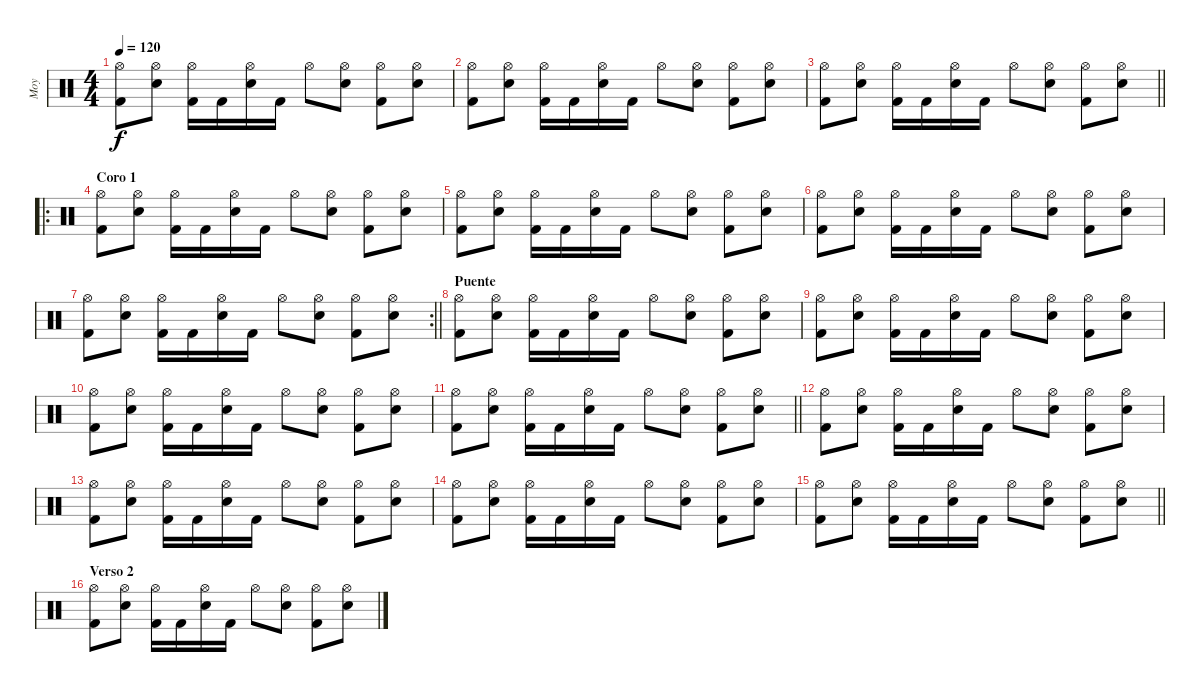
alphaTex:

\track ("Moy" "Moy") {instrument percussion}
\staff {score}
\articulation defaults
\ts (4 4)
\tempo 120
\clef neutral
\ks c
("Hi-Hat (open)" "Kick (hit) 2").8{dy f} ("Hi-Hat (open)" "Electric Snare (hit)").8 ("Hi-Hat (open)" "Kick (hit) 2").16 "Kick (hit) 2".16 ("Hi-Hat (open)" "Electric Snare (hit)").16 "Kick (hit) 2".16 "Hi-Hat (open)".8 ("Hi-Hat (open)" "Electric Snare (hit)").8 ("Hi-Hat (open)" "Kick (hit) 2").8 ("Hi-Hat (open)" "Electric Snare (hit)").8 |
("Hi-Hat (open)" "Kick (hit) 2").8 ("Hi-Hat (open)" "Electric Snare (hit)").8 ("Hi-Hat (open)" "Kick (hit) 2").16 "Kick (hit) 2".16 ("Hi-Hat (open)" "Electric Snare (hit)").16 "Kick (hit) 2".16 "Hi-Hat (open)".8 ("Hi-Hat (open)" "Electric Snare (hit)").8 ("Hi-Hat (open)" "Kick (hit) 2").8 ("Hi-Hat (open)" "Electric Snare (hit)").8 |
\barLineRight lightlight
("Hi-Hat (open)" "Kick (hit) 2").8 ("Hi-Hat (open)" "Electric Snare (hit)").8 ("Hi-Hat (open)" "Kick (hit) 2").16 "Kick (hit) 2".16 ("Hi-Hat (open)" "Electric Snare (hit)").16 "Kick (hit) 2".16 "Hi-Hat (open)".8 ("Hi-Hat (open)" "Electric Snare (hit)").8 ("Hi-Hat (open)" "Kick (hit) 2").8 ("Hi-Hat (open)" "Electric Snare (hit)").8 |
\ro
\section ("" "Coro 1")
("Hi-Hat (open)" "Kick (hit) 2").8 ("Hi-Hat (open)" "Electric Snare (hit)").8 ("Hi-Hat (open)" "Kick (hit) 2").16 "Kick (hit) 2".16 ("Hi-Hat (open)" "Electric Snare (hit)").16 "Kick (hit) 2".16 "Hi-Hat (open)".8 ("Hi-Hat (open)" "Electric Snare (hit)").8 ("Hi-Hat (open)" "Kick (hit) 2").8 ("Hi-Hat (open)" "Electric Snare (hit)").8 |
("Hi-Hat (open)" "Kick (hit) 2").8 ("Hi-Hat (open)" "Electric Snare (hit)").8 ("Hi-Hat (open)" "Kick (hit) 2").16 "Kick (hit) 2".16 ("Hi-Hat (open)" "Electric Snare (hit)").16 "Kick (hit) 2".16 "Hi-Hat (open)".8 ("Hi-Hat (open)" "Electric Snare (hit)").8 ("Hi-Hat (open)" "Kick (hit) 2").8 ("Hi-Hat (open)" "Electric Snare (hit)").8 |
("Hi-Hat (open)" "Kick (hit) 2").8 ("Hi-Hat (open)" "Electric Snare (hit)").8 ("Hi-Hat (open)" "Kick (hit) 2").16 "Kick (hit) 2".16 ("Hi-Hat (open)" "Electric Snare (hit)").16 "Kick (hit) 2".16 "Hi-Hat (open)".8 ("Hi-Hat (open)" "Electric Snare (hit)").8 ("Hi-Hat (open)" "Kick (hit) 2").8 ("Hi-Hat (open)" "Electric Snare (hit)").8 |
\rc 2
\barLineRight lightlight
("Hi-Hat (open)" "Kick (hit) 2").8 ("Hi-Hat (open)" "Electric Snare (hit)").8 ("Hi-Hat (open)" "Kick (hit) 2").16 "Kick (hit) 2".16 ("Hi-Hat (open)" "Electric Snare (hit)").16 "Kick (hit) 2".16 "Hi-Hat (open)".8 ("Hi-Hat (open)" "Electric Snare (hit)").8 ("Hi-Hat (open)" "Kick (hit) 2").8 ("Hi-Hat (open)" "Electric Snare (hit)").8 |
\section ("" "Puente")
("Hi-Hat (open)" "Kick (hit) 2").8 ("Hi-Hat (open)" "Electric Snare (hit)").8 ("Hi-Hat (open)" "Kick (hit) 2").16 "Kick (hit) 2".16 ("Hi-Hat (open)" "Electric Snare (hit)").16 "Kick (hit) 2".16 "Hi-Hat (open)".8 ("Hi-Hat (open)" "Electric Snare (hit)").8 ("Hi-Hat (open)" "Kick (hit) 2").8 ("Hi-Hat (open)" "Electric Snare (hit)").8 |
("Hi-Hat (open)" "Kick (hit) 2").8 ("Hi-Hat (open)" "Electric Snare (hit)").8 ("Hi-Hat (open)" "Kick (hit) 2").16 "Kick (hit) 2".16 ("Hi-Hat (open)" "Electric Snare (hit)").16 "Kick (hit) 2".16 "Hi-Hat (open)".8 ("Hi-Hat (open)" "Electric Snare (hit)").8 ("Hi-Hat (open)" "Kick (hit) 2").8 ("Hi-Hat (open)" "Electric Snare (hit)").8 |
("Hi-Hat (open)" "Kick (hit) 2").8 ("Hi-Hat (open)" "Electric Snare (hit)").8 ("Hi-Hat (open)" "Kick (hit) 2").16 "Kick (hit) 2".16 ("Hi-Hat (open)" "Electric Snare (hit)").16 "Kick (hit) 2".16 "Hi-Hat (open)".8 ("Hi-Hat (open)" "Electric Snare (hit)").8 ("Hi-Hat (open)" "Kick (hit) 2").8 ("Hi-Hat (open)" "Electric Snare (hit)").8 |
\barLineRight lightlight
("Hi-Hat (open)" "Kick (hit) 2").8 ("Hi-Hat (open)" "Electric Snare (hit)").8 ("Hi-Hat (open)" "Kick (hit) 2").16 "Kick (hit) 2".16 ("Hi-Hat (open)" "Electric Snare (hit)").16 "Kick (hit) 2".16 "Hi-Hat (open)".8 ("Hi-Hat (open)" "Electric Snare (hit)").8 ("Hi-Hat (open)" "Kick (hit) 2").8 ("Hi-Hat (open)" "Electric Snare (hit)").8 |
\section ("" "")
("Hi-Hat (open)" "Kick (hit) 2").8 ("Hi-Hat (open)" "Electric Snare (hit)").8 ("Hi-Hat (open)" "Kick (hit) 2").16 "Kick (hit) 2".16 ("Hi-Hat (open)" "Electric Snare (hit)").16 "Kick (hit) 2".16 "Hi-Hat (open)".8 ("Hi-Hat (open)" "Electric Snare (hit)").8 ("Hi-Hat (open)" "Kick (hit) 2").8 ("Hi-Hat (open)" "Electric Snare (hit)").8 |
("Hi-Hat (open)" "Kick (hit) 2").8 ("Hi-Hat (open)" "Electric Snare (hit)").8 ("Hi-Hat (open)" "Kick (hit) 2").16 "Kick (hit) 2".16 ("Hi-Hat (open)" "Electric Snare (hit)").16 "Kick (hit) 2".16 "Hi-Hat (open)".8 ("Hi-Hat (open)" "Electric Snare (hit)").8 ("Hi-Hat (open)" "Kick (hit) 2").8 ("Hi-Hat (open)" "Electric Snare (hit)").8 |
("Hi-Hat (open)" "Kick (hit) 2").8 ("Hi-Hat (open)" "Electric Snare (hit)").8 ("Hi-Hat (open)" "Kick (hit) 2").16 "Kick (hit) 2".16 ("Hi-Hat (open)" "Electric Snare (hit)").16 "Kick (hit) 2".16 "Hi-Hat (open)".8 ("Hi-Hat (open)" "Electric Snare (hit)").8 ("Hi-Hat (open)" "Kick (hit) 2").8 ("Hi-Hat (open)" "Electric Snare (hit)").8 |
\barLineRight lightlight
("Hi-Hat (open)" "Kick (hit) 2").8 ("Hi-Hat (open)" "Electric Snare (hit)").8 ("Hi-Hat (open)" "Kick (hit) 2").16 "Kick (hit) 2".16 ("Hi-Hat (open)" "Electric Snare (hit)").16 "Kick (hit) 2".16 "Hi-Hat (open)".8 ("Hi-Hat (open)" "Electric Snare (hit)").8 ("Hi-Hat (open)" "Kick (hit) 2").8 ("Hi-Hat (open)" "Electric Snare (hit)").8 |
\section ("" "Verso 2")
("Hi-Hat (open)" "Kick (hit) 2").8 ("Hi-Hat (open)" "Electric Snare (hit)").8 ("Hi-Hat (open)" "Kick (hit) 2").16 "Kick (hit) 2".16 ("Hi-Hat (open)" "Electric Snare (hit)").16 "Kick (hit) 2".16 "Hi-Hat (open)".8 ("Hi-Hat (open)" "Electric Snare (hit)").8 ("Hi-Hat (open)" "Kick (hit) 2").8 ("Hi-Hat (open)" "Electric Snare (hit)").8
